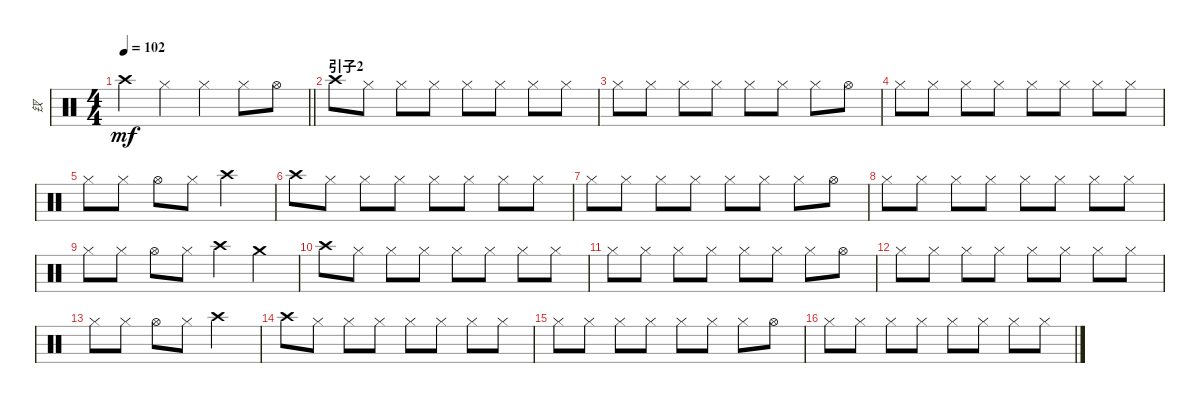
\track ("钗" "钗") {instrument percussion}
\staff {score}
\articulation defaults
\ts (4 4)
\tempo 102
\clef neutral
\barLineRight lightlight
\ks c "Crash high (hit)".4{dy mf} "Hi-Hat (closed)".4 "Hi-Hat (closed)".4 "Hi-Hat (closed)".8 "Hi-Hat (open)".8
|
\section ("" "引子2")
"Crash high (hit)".8 "Hi-Hat (closed)".8 "Hi-Hat (closed)".8 "Hi-Hat (closed)".8 "Hi-Hat (closed)".8 "Hi-Hat (closed)".8 "Hi-Hat (closed)".8 "Hi-Hat (closed)".8 |
"Hi-Hat (closed)".8 "Hi-Hat (closed)".8 "Hi-Hat (closed)".8 "Hi-Hat (closed)".8 "Hi-Hat (closed)".8 "Hi-Hat (closed)".8 "Hi-Hat (closed)".8 "Hi-Hat (open)".8 |
"Hi-Hat (closed)".8 "Hi-Hat (closed)".8 "Hi-Hat (closed)".8 "Hi-Hat (closed)".8 "Hi-Hat (closed)".8 "Hi-Hat (closed)".8 "Hi-Hat (closed)".8 "Hi-Hat (closed)".8 |
"Hi-Hat (closed)".8 "Hi-Hat (closed)".8 "Hi-Hat (open)".8 "Hi-Hat (closed)".8 "Crash high (hit)".2 |
"Crash high (hit)".8 "Hi-Hat (closed)".8 "Hi-Hat (closed)".8 "Hi-Hat (closed)".8 "Hi-Hat (closed)".8 "Hi-Hat (closed)".8 "Hi-Hat (closed)".8 "Hi-Hat (closed)".8 |
"Hi-Hat (closed)".8 "Hi-Hat (closed)".8 "Hi-Hat (closed)".8 "Hi-Hat (closed)".8 "Hi-Hat (closed)".8 "Hi-Hat (closed)".8 "Hi-Hat (closed)".8 "Hi-Hat (open)".8 |
"Hi-Hat (closed)".8 "Hi-Hat (closed)".8 "Hi-Hat (closed)".8 "Hi-Hat (closed)".8 "Hi-Hat (closed)".8 "Hi-Hat (closed)".8 "Hi-Hat (closed)".8 "Hi-Hat (closed)".8 |
"Hi-Hat (closed)".8 "Hi-Hat (closed)".8 "Hi-Hat (open)".8 "Hi-Hat (closed)".8 "Crash high (hit)".4 "Crash medium (hit)".4 |
"Crash high (hit)".8 "Hi-Hat (closed)".8 "Hi-Hat (closed)".8 "Hi-Hat (closed)".8 "Hi-Hat (closed)".8 "Hi-Hat (closed)".8 "Hi-Hat (closed)".8 "Hi-Hat (closed)".8 |
"Hi-Hat (closed)".8 "Hi-Hat (closed)".8 "Hi-Hat (closed)".8 "Hi-Hat (closed)".8 "Hi-Hat (closed)".8 "Hi-Hat (closed)".8 "Hi-Hat (closed)".8 "Hi-Hat (open)".8 |
"Hi-Hat (closed)".8 "Hi-Hat (closed)".8 "Hi-Hat (closed)".8 "Hi-Hat (closed)".8 "Hi-Hat (closed)".8 "Hi-Hat (closed)".8 "Hi-Hat (closed)".8 "Hi-Hat (closed)".8 |
"Hi-Hat (closed)".8 "Hi-Hat (closed)".8 "Hi-Hat (open)".8 "Hi-Hat (closed)".8 "Crash high (hit)".2 |
"Crash high (hit)".8 "Hi-Hat (closed)".8 "Hi-Hat (closed)".8 "Hi-Hat (closed)".8 "Hi-Hat (closed)".8 "Hi-Hat (closed)".8 "Hi-Hat (closed)".8 "Hi-Hat (closed)".8 |
"Hi-Hat (closed)".8 "Hi-Hat (closed)".8 "Hi-Hat (closed)".8 "Hi-Hat (closed)".8 "Hi-Hat (closed)".8 "Hi-Hat (closed)".8 "Hi-Hat (closed)".8 "Hi-Hat (open)".8 |
"Hi-Hat (closed)".8 "Hi-Hat (closed)".8 "Hi-Hat (closed)".8 "Hi-Hat (closed)".8 "Hi-Hat (closed)".8 "Hi-Hat (closed)".8 "Hi-Hat (closed)".8 "Hi-Hat (closed)".8
